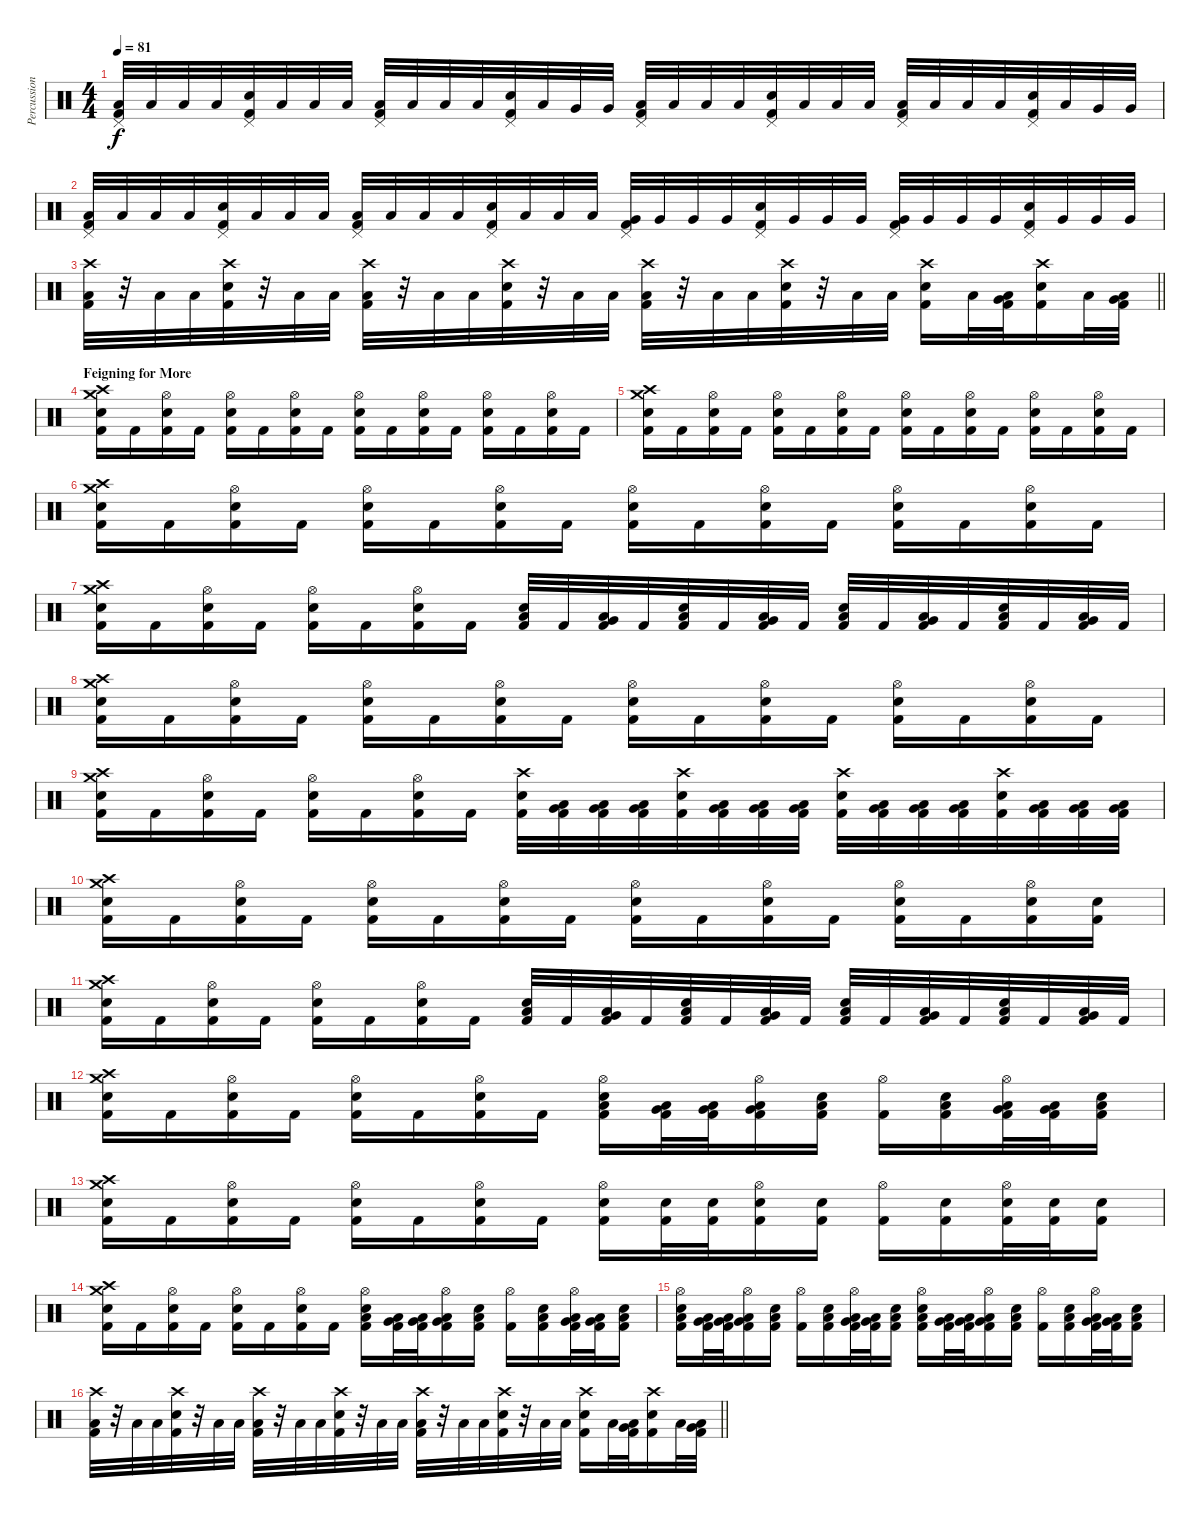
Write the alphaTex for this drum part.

\track ("Percussion" "Percussion") {instrument percussion}
\staff {score}
\articulation defaults
\ts (4 4)
\tempo 81
\clef neutral
\ks c
("Pedal Hi-Hat (hit)" "Low Floor Tom (hit)" "Kick (hit) 2").32{dy f} "Low Floor Tom (hit)".32 "Low Floor Tom (hit)".32 "Low Floor Tom (hit)".32 ("Pedal Hi-Hat (hit)" "Electric Snare (hit)" "Kick (hit) 2").32 "Low Floor Tom (hit)".32 "Low Floor Tom (hit)".32 "Low Floor Tom (hit)".32 ("Pedal Hi-Hat (hit)" "Low Floor Tom (hit)" "Kick (hit) 2").32 "Low Floor Tom (hit)".32 "Low Floor Tom (hit)".32 "Low Floor Tom (hit)".32 ("Pedal Hi-Hat (hit)" "Electric Snare (hit)" "Kick (hit) 2").32 "Low Floor Tom (hit)".32 "Very Low Tom (hit)".32 "Very Low Tom (hit)".32 ("Pedal Hi-Hat (hit)" "Low Floor Tom (hit)" "Kick (hit) 2").32 "Low Floor Tom (hit)".32 "Low Floor Tom (hit)".32 "Low Floor Tom (hit)".32 ("Pedal Hi-Hat (hit)" "Electric Snare (hit)" "Kick (hit) 2").32 "Low Floor Tom (hit)".32 "Low Floor Tom (hit)".32 "Low Floor Tom (hit)".32 ("Pedal Hi-Hat (hit)" "Low Floor Tom (hit)" "Kick (hit) 2").32 "Low Floor Tom (hit)".32 "Low Floor Tom (hit)".32 "Low Floor Tom (hit)".32 ("Pedal Hi-Hat (hit)" "Electric Snare (hit)" "Kick (hit) 2").32 "Low Floor Tom (hit)".32 "Very Low Tom (hit)".32 "Very Low Tom (hit)".32 |
("Pedal Hi-Hat (hit)" "Low Tom (hit)" "Kick (hit) 2").32 "Low Tom (hit)".32 "Low Tom (hit)".32 "Low Tom (hit)".32 ("Pedal Hi-Hat (hit)" "Electric Snare (hit)" "Kick (hit) 2").32 "Low Tom (hit)".32 "Low Tom (hit)".32 "Low Tom (hit)".32 ("Pedal Hi-Hat (hit)" "Low Tom (hit)" "Kick (hit) 2").32 "Low Tom (hit)".32 "Low Tom (hit)".32 "Low Tom (hit)".32 ("Pedal Hi-Hat (hit)" "Electric Snare (hit)" "Kick (hit) 2").32 "Low Tom (hit)".32 "Low Tom (hit)".32 "Low Tom (hit)".32 ("Pedal Hi-Hat (hit)" "Very Low Tom (hit)" "Kick (hit) 2").32 "Very Low Tom (hit)".32 "Very Low Tom (hit)".32 "Very Low Tom (hit)".32 ("Pedal Hi-Hat (hit)" "Electric Snare (hit)" "Kick (hit) 2").32 "Very Low Tom (hit)".32 "Very Low Tom (hit)".32 "Very Low Tom (hit)".32 ("Pedal Hi-Hat (hit)" "Very Low Tom (hit)" "Kick (hit) 2").32 "Very Low Tom (hit)".32 "Very Low Tom (hit)".32 "Very Low Tom (hit)".32 ("Pedal Hi-Hat (hit)" "Electric Snare (hit)" "Kick (hit) 2").32 "Very Low Tom (hit)".32 "Very Low Tom (hit)".32 "Very Low Tom (hit)".32 |
\barLineRight lightlight
("Crash high (hit)" "Low Floor Tom (hit)" "Kick (hit) 2").32 r.32 "Low Floor Tom (hit)".32 "Low Floor Tom (hit)".32 ("Crash high (hit)" "Electric Snare (hit)" "Kick (hit) 2").32 r.32 "Low Floor Tom (hit)".32 "Low Floor Tom (hit)".32 ("Crash high (hit)" "Low Floor Tom (hit)" "Kick (hit) 2").32 r.32 "Low Floor Tom (hit)".32 "Low Floor Tom (hit)".32 ("Crash high (hit)" "Electric Snare (hit)" "Kick (hit) 2").32 r.32 "Low Floor Tom (hit)".32 "Low Floor Tom (hit)".32 ("Crash high (hit)" "Low Floor Tom (hit)" "Kick (hit) 2").32 r.32 "Low Floor Tom (hit)".32 "Low Floor Tom (hit)".32 ("Crash high (hit)" "Electric Snare (hit)" "Kick (hit) 2").32 r.32 "Low Floor Tom (hit)".32 "Low Floor Tom (hit)".32 ("Crash high (hit)" "Electric Snare (hit)" "Kick (hit) 2").16 "Low Floor Tom (hit)".32 ("Very Low Tom (hit)" "Low Floor Tom (hit)" "Kick (hit) 2").32 ("Crash high (hit)" "Electric Snare (hit)" "Kick (hit) 2").16 "Low Floor Tom (hit)".32 ("Very Low Tom (hit)" "Low Floor Tom (hit)" "Kick (hit) 2").32 |
\section ("" "Feigning for More")
("Crash high (hit)" "Crash medium (hit)" "Electric Snare (hit)" "Kick (hit) 2").16 "Kick (hit) 2".16 ("Hi-Hat (open)" "Electric Snare (hit)" "Kick (hit) 2").16 "Kick (hit) 2".16 ("Hi-Hat (open)" "Electric Snare (hit)" "Kick (hit) 2").16 "Kick (hit) 2".16 ("Hi-Hat (open)" "Electric Snare (hit)" "Kick (hit) 2").16 "Kick (hit) 2".16 ("Hi-Hat (open)" "Electric Snare (hit)" "Kick (hit) 2").16 "Kick (hit) 2".16 ("Hi-Hat (open)" "Electric Snare (hit)" "Kick (hit) 2").16 "Kick (hit) 2".16 ("Hi-Hat (open)" "Electric Snare (hit)" "Kick (hit) 2").16 "Kick (hit) 2".16 ("Hi-Hat (open)" "Electric Snare (hit)" "Kick (hit) 2").16 "Kick (hit) 2".16 |
("Crash high (hit)" "Crash medium (hit)" "Electric Snare (hit)" "Kick (hit) 2").16 "Kick (hit) 2".16 ("Hi-Hat (open)" "Electric Snare (hit)" "Kick (hit) 2").16 "Kick (hit) 2".16 ("Hi-Hat (open)" "Electric Snare (hit)" "Kick (hit) 2").16 "Kick (hit) 2".16 ("Hi-Hat (open)" "Electric Snare (hit)" "Kick (hit) 2").16 "Kick (hit) 2".16 ("Hi-Hat (open)" "Electric Snare (hit)" "Kick (hit) 2").16 "Kick (hit) 2".16 ("Hi-Hat (open)" "Electric Snare (hit)" "Kick (hit) 2").16 "Kick (hit) 2".16 ("Hi-Hat (open)" "Electric Snare (hit)" "Kick (hit) 2").16 "Kick (hit) 2".16 ("Hi-Hat (open)" "Electric Snare (hit)" "Kick (hit) 2").16 "Kick (hit) 2".16 |
("Crash high (hit)" "Crash medium (hit)" "Electric Snare (hit)" "Kick (hit) 2").16 "Kick (hit) 2".16 ("Hi-Hat (open)" "Electric Snare (hit)" "Kick (hit) 2").16 "Kick (hit) 2".16 ("Hi-Hat (open)" "Electric Snare (hit)" "Kick (hit) 2").16 "Kick (hit) 2".16 ("Hi-Hat (open)" "Electric Snare (hit)" "Kick (hit) 2").16 "Kick (hit) 2".16 ("Hi-Hat (open)" "Electric Snare (hit)" "Kick (hit) 2").16 "Kick (hit) 2".16 ("Hi-Hat (open)" "Electric Snare (hit)" "Kick (hit) 2").16 "Kick (hit) 2".16 ("Hi-Hat (open)" "Electric Snare (hit)" "Kick (hit) 2").16 "Kick (hit) 2".16 ("Hi-Hat (open)" "Electric Snare (hit)" "Kick (hit) 2").16 "Kick (hit) 2".16 |
("Crash high (hit)" "Crash medium (hit)" "Electric Snare (hit)" "Kick (hit) 2").16 "Kick (hit) 2".16 ("Hi-Hat (open)" "Electric Snare (hit)" "Kick (hit) 2").16 "Kick (hit) 2".16 ("Hi-Hat (open)" "Electric Snare (hit)" "Kick (hit) 2").16 "Kick (hit) 2".16 ("Hi-Hat (open)" "Electric Snare (hit)" "Kick (hit) 2").16 "Kick (hit) 2".16 ("Low Floor Tom (hit)" "Electric Snare (hit)" "Kick (hit) 2").32 "Kick (hit) 2".32 ("Very Low Tom (hit)" "Low Floor Tom (hit)" "Kick (hit) 2").32 "Kick (hit) 2".32 ("Low Floor Tom (hit)" "Electric Snare (hit)" "Kick (hit) 2").32 "Kick (hit) 2".32 ("Very Low Tom (hit)" "Low Floor Tom (hit)" "Kick (hit) 2").32 "Kick (hit) 2".32 ("Low Floor Tom (hit)" "Electric Snare (hit)" "Kick (hit) 2").32 "Kick (hit) 2".32 ("Very Low Tom (hit)" "Low Floor Tom (hit)" "Kick (hit) 2").32 "Kick (hit) 2".32 ("Low Floor Tom (hit)" "Electric Snare (hit)" "Kick (hit) 2").32 "Kick (hit) 2".32 ("Very Low Tom (hit)" "Low Floor Tom (hit)" "Kick (hit) 2").32 "Kick (hit) 2".32 |
("Crash high (hit)" "Crash medium (hit)" "Electric Snare (hit)" "Kick (hit) 2").16 "Kick (hit) 2".16 ("Hi-Hat (open)" "Electric Snare (hit)" "Kick (hit) 2").16 "Kick (hit) 2".16 ("Hi-Hat (open)" "Electric Snare (hit)" "Kick (hit) 2").16 "Kick (hit) 2".16 ("Hi-Hat (open)" "Electric Snare (hit)" "Kick (hit) 2").16 "Kick (hit) 2".16 ("Hi-Hat (open)" "Electric Snare (hit)" "Kick (hit) 2").16 "Kick (hit) 2".16 ("Hi-Hat (open)" "Electric Snare (hit)" "Kick (hit) 2").16 "Kick (hit) 2".16 ("Hi-Hat (open)" "Electric Snare (hit)" "Kick (hit) 2").16 "Kick (hit) 2".16 ("Hi-Hat (open)" "Electric Snare (hit)" "Kick (hit) 2").16 "Kick (hit) 2".16 |
("Crash high (hit)" "Crash medium (hit)" "Electric Snare (hit)" "Kick (hit) 2").16 "Kick (hit) 2".16 ("Hi-Hat (open)" "Electric Snare (hit)" "Kick (hit) 2").16 "Kick (hit) 2".16 ("Hi-Hat (open)" "Electric Snare (hit)" "Kick (hit) 2").16 "Kick (hit) 2".16 ("Hi-Hat (open)" "Electric Snare (hit)" "Kick (hit) 2").16 "Kick (hit) 2".16 ("Crash high (hit)" "Electric Snare (hit)" "Kick (hit) 2").32 ("Very Low Tom (hit)" "Low Floor Tom (hit)" "Kick (hit) 2").32 ("Very Low Tom (hit)" "Low Floor Tom (hit)" "Kick (hit) 2").32 ("Very Low Tom (hit)" "Low Floor Tom (hit)" "Kick (hit) 2").32 ("Crash high (hit)" "Electric Snare (hit)" "Kick (hit) 2").32 ("Very Low Tom (hit)" "Low Floor Tom (hit)" "Kick (hit) 2").32 ("Very Low Tom (hit)" "Low Floor Tom (hit)" "Kick (hit) 2").32 ("Low Tom (hit)" "Very Low Tom (hit)" "Kick (hit) 2").32 ("Crash high (hit)" "Electric Snare (hit)" "Kick (hit) 2").32 ("Very Low Tom (hit)" "Low Floor Tom (hit)" "Kick (hit) 2").32 ("Very Low Tom (hit)" "Low Floor Tom (hit)" "Kick (hit) 2").32 ("Low Tom (hit)" "Very Low Tom (hit)" "Kick (hit) 2").32 ("Crash high (hit)" "Electric Snare (hit)" "Kick (hit) 2").32 ("Very Low Tom (hit)" "Low Floor Tom (hit)" "Kick (hit) 2").32 ("Very Low Tom (hit)" "Low Floor Tom (hit)" "Kick (hit) 2").32 ("Very Low Tom (hit)" "Low Floor Tom (hit)" "Kick (hit) 2").32 |
("Crash high (hit)" "Crash medium (hit)" "Electric Snare (hit)" "Kick (hit) 2").16 "Kick (hit) 2".16 ("Hi-Hat (open)" "Electric Snare (hit)" "Kick (hit) 2").16 "Kick (hit) 2".16 ("Hi-Hat (open)" "Electric Snare (hit)" "Kick (hit) 2").16 "Kick (hit) 2".16 ("Hi-Hat (open)" "Electric Snare (hit)" "Kick (hit) 2").16 "Kick (hit) 2".16 ("Hi-Hat (open)" "Electric Snare (hit)" "Kick (hit) 2").16 "Kick (hit) 2".16 ("Hi-Hat (open)" "Electric Snare (hit)" "Kick (hit) 2").16 "Kick (hit) 2".16 ("Hi-Hat (open)" "Electric Snare (hit)" "Kick (hit) 2").16 "Kick (hit) 2".16 ("Hi-Hat (open)" "Electric Snare (hit)" "Kick (hit) 2").16 ("Electric Snare (hit)" "Kick (hit) 2").16 |
("Crash high (hit)" "Crash medium (hit)" "Electric Snare (hit)" "Kick (hit) 2").16 "Kick (hit) 2".16 ("Hi-Hat (open)" "Electric Snare (hit)" "Kick (hit) 2").16 "Kick (hit) 2".16 ("Hi-Hat (open)" "Electric Snare (hit)" "Kick (hit) 2").16 "Kick (hit) 2".16 ("Hi-Hat (open)" "Electric Snare (hit)" "Kick (hit) 2").16 "Kick (hit) 2".16 ("Low Floor Tom (hit)" "Electric Snare (hit)" "Kick (hit) 2").32 "Kick (hit) 2".32 ("Very Low Tom (hit)" "Low Floor Tom (hit)" "Kick (hit) 2").32 "Kick (hit) 2".32 ("Low Floor Tom (hit)" "Electric Snare (hit)" "Kick (hit) 2").32 "Kick (hit) 2".32 ("Very Low Tom (hit)" "Low Floor Tom (hit)" "Kick (hit) 2").32 "Kick (hit) 2".32 ("Low Floor Tom (hit)" "Electric Snare (hit)" "Kick (hit) 2").32 "Kick (hit) 2".32 ("Very Low Tom (hit)" "Low Floor Tom (hit)" "Kick (hit) 2").32 "Kick (hit) 2".32 ("Low Floor Tom (hit)" "Electric Snare (hit)" "Kick (hit) 2").32 "Kick (hit) 2".32 ("Very Low Tom (hit)" "Low Floor Tom (hit)" "Kick (hit) 2").32 "Kick (hit) 2".32 |
("Crash high (hit)" "Crash medium (hit)" "Electric Snare (hit)" "Kick (hit) 2").16 "Kick (hit) 2".16 ("Hi-Hat (open)" "Electric Snare (hit)" "Kick (hit) 2").16 "Kick (hit) 2".16 ("Hi-Hat (open)" "Electric Snare (hit)" "Kick (hit) 2").16 "Kick (hit) 2".16 ("Hi-Hat (open)" "Electric Snare (hit)" "Kick (hit) 2").16 "Kick (hit) 2".16 ("Hi-Hat (open)" "Electric Snare (hit)" "Low Floor Tom (hit)" "Kick (hit) 2").16 ("Low Floor Tom (hit)" "Very Low Tom (hit)" "Kick (hit) 2").32 ("Low Floor Tom (hit)" "Very Low Tom (hit)" "Kick (hit) 2").32 ("Hi-Hat (open)" "Low Floor Tom (hit)" "Very Low Tom (hit)" "Kick (hit) 2").16 ("Electric Snare (hit)" "Low Floor Tom (hit)" "Kick (hit) 2").16 ("Hi-Hat (open)" "Kick (hit) 2").16 ("Electric Snare (hit)" "Low Floor Tom (hit)" "Kick (hit) 2").16 ("Hi-Hat (open)" "Low Floor Tom (hit)" "Very Low Tom (hit)" "Kick (hit) 2").32 ("Low Floor Tom (hit)" "Very Low Tom (hit)" "Kick (hit) 2").32 ("Electric Snare (hit)" "Low Floor Tom (hit)" "Kick (hit) 2").16 |
("Crash high (hit)" "Crash medium (hit)" "Electric Snare (hit)" "Kick (hit) 2").16 "Kick (hit) 2".16 ("Hi-Hat (open)" "Electric Snare (hit)" "Kick (hit) 2").16 "Kick (hit) 2".16 ("Hi-Hat (open)" "Electric Snare (hit)" "Kick (hit) 2").16 "Kick (hit) 2".16 ("Hi-Hat (open)" "Electric Snare (hit)" "Kick (hit) 2").16 "Kick (hit) 2".16 ("Hi-Hat (open)" "Electric Snare (hit)" "Kick (hit) 2").16 ("Electric Snare (hit)" "Kick (hit) 2").32 ("Electric Snare (hit)" "Kick (hit) 2").32 ("Hi-Hat (open)" "Electric Snare (hit)" "Kick (hit) 2").16 ("Electric Snare (hit)" "Kick (hit) 2").16 ("Hi-Hat (open)" "Kick (hit) 2").16 ("Electric Snare (hit)" "Kick (hit) 2").16 ("Hi-Hat (open)" "Electric Snare (hit)" "Kick (hit) 2").32 ("Electric Snare (hit)" "Kick (hit) 2").32 ("Electric Snare (hit)" "Kick (hit) 2").16 |
("Crash high (hit)" "Crash medium (hit)" "Electric Snare (hit)" "Kick (hit) 2").16 "Kick (hit) 2".16 ("Hi-Hat (open)" "Electric Snare (hit)" "Kick (hit) 2").16 "Kick (hit) 2".16 ("Hi-Hat (open)" "Electric Snare (hit)" "Kick (hit) 2").16 "Kick (hit) 2".16 ("Hi-Hat (open)" "Electric Snare (hit)" "Kick (hit) 2").16 "Kick (hit) 2".16 ("Hi-Hat (open)" "Electric Snare (hit)" "Low Floor Tom (hit)" "Kick (hit) 2").16 ("Low Floor Tom (hit)" "Very Low Tom (hit)" "Kick (hit) 2").32 ("Low Floor Tom (hit)" "Very Low Tom (hit)" "Kick (hit) 2").32 ("Hi-Hat (open)" "Low Floor Tom (hit)" "Very Low Tom (hit)" "Kick (hit) 2").16 ("Electric Snare (hit)" "Low Floor Tom (hit)" "Kick (hit) 2").16 ("Hi-Hat (open)" "Kick (hit) 2").16 ("Electric Snare (hit)" "Low Floor Tom (hit)" "Kick (hit) 2").16 ("Hi-Hat (open)" "Low Floor Tom (hit)" "Very Low Tom (hit)" "Kick (hit) 2").32 ("Low Floor Tom (hit)" "Very Low Tom (hit)" "Kick (hit) 2").32 ("Electric Snare (hit)" "Low Floor Tom (hit)" "Kick (hit) 2").16 |
("Hi-Hat (open)" "Electric Snare (hit)" "Low Floor Tom (hit)" "Kick (hit) 2").16 ("Low Floor Tom (hit)" "Very Low Tom (hit)" "Kick (hit) 2").32 ("Low Floor Tom (hit)" "Very Low Tom (hit)" "Kick (hit) 2").32 ("Hi-Hat (open)" "Low Floor Tom (hit)" "Very Low Tom (hit)" "Kick (hit) 2").16 ("Electric Snare (hit)" "Low Floor Tom (hit)" "Kick (hit) 2").16 ("Hi-Hat (open)" "Kick (hit) 2").16 ("Electric Snare (hit)" "Low Floor Tom (hit)" "Kick (hit) 2").16 ("Hi-Hat (open)" "Low Floor Tom (hit)" "Very Low Tom (hit)" "Kick (hit) 2").32 ("Low Floor Tom (hit)" "Very Low Tom (hit)" "Kick (hit) 2").32 ("Electric Snare (hit)" "Low Floor Tom (hit)" "Kick (hit) 2").16 ("Hi-Hat (open)" "Electric Snare (hit)" "Low Floor Tom (hit)" "Kick (hit) 2").16 ("Low Floor Tom (hit)" "Very Low Tom (hit)" "Kick (hit) 2").32 ("Low Floor Tom (hit)" "Very Low Tom (hit)" "Kick (hit) 2").32 ("Hi-Hat (open)" "Low Floor Tom (hit)" "Very Low Tom (hit)" "Kick (hit) 2").16 ("Electric Snare (hit)" "Low Floor Tom (hit)" "Kick (hit) 2").16 ("Hi-Hat (open)" "Kick (hit) 2").16 ("Electric Snare (hit)" "Low Floor Tom (hit)" "Kick (hit) 2").16 ("Hi-Hat (open)" "Low Floor Tom (hit)" "Very Low Tom (hit)" "Kick (hit) 2").32 ("Low Floor Tom (hit)" "Very Low Tom (hit)" "Kick (hit) 2").32 ("Electric Snare (hit)" "Low Floor Tom (hit)" "Kick (hit) 2").16 |
\barLineRight lightlight
("Crash high (hit)" "Low Floor Tom (hit)" "Kick (hit) 2").32 r.32 "Low Floor Tom (hit)".32 "Low Floor Tom (hit)".32 ("Crash high (hit)" "Electric Snare (hit)" "Kick (hit) 2").32 r.32 "Low Floor Tom (hit)".32 "Low Floor Tom (hit)".32 ("Crash high (hit)" "Low Floor Tom (hit)" "Kick (hit) 2").32 r.32 "Low Floor Tom (hit)".32 "Low Floor Tom (hit)".32 ("Crash high (hit)" "Electric Snare (hit)" "Kick (hit) 2").32 r.32 "Low Floor Tom (hit)".32 "Low Floor Tom (hit)".32 ("Crash high (hit)" "Low Floor Tom (hit)" "Kick (hit) 2").32 r.32 "Low Floor Tom (hit)".32 "Low Floor Tom (hit)".32 ("Crash high (hit)" "Electric Snare (hit)" "Kick (hit) 2").32 r.32 "Low Floor Tom (hit)".32 "Low Floor Tom (hit)".32 ("Crash high (hit)" "Electric Snare (hit)" "Kick (hit) 2").16 "Low Floor Tom (hit)".32 ("Very Low Tom (hit)" "Low Floor Tom (hit)" "Kick (hit) 2").32 ("Crash high (hit)" "Electric Snare (hit)" "Kick (hit) 2").16 "Low Floor Tom (hit)".32 ("Very Low Tom (hit)" "Low Floor Tom (hit)" "Kick (hit) 2").32
